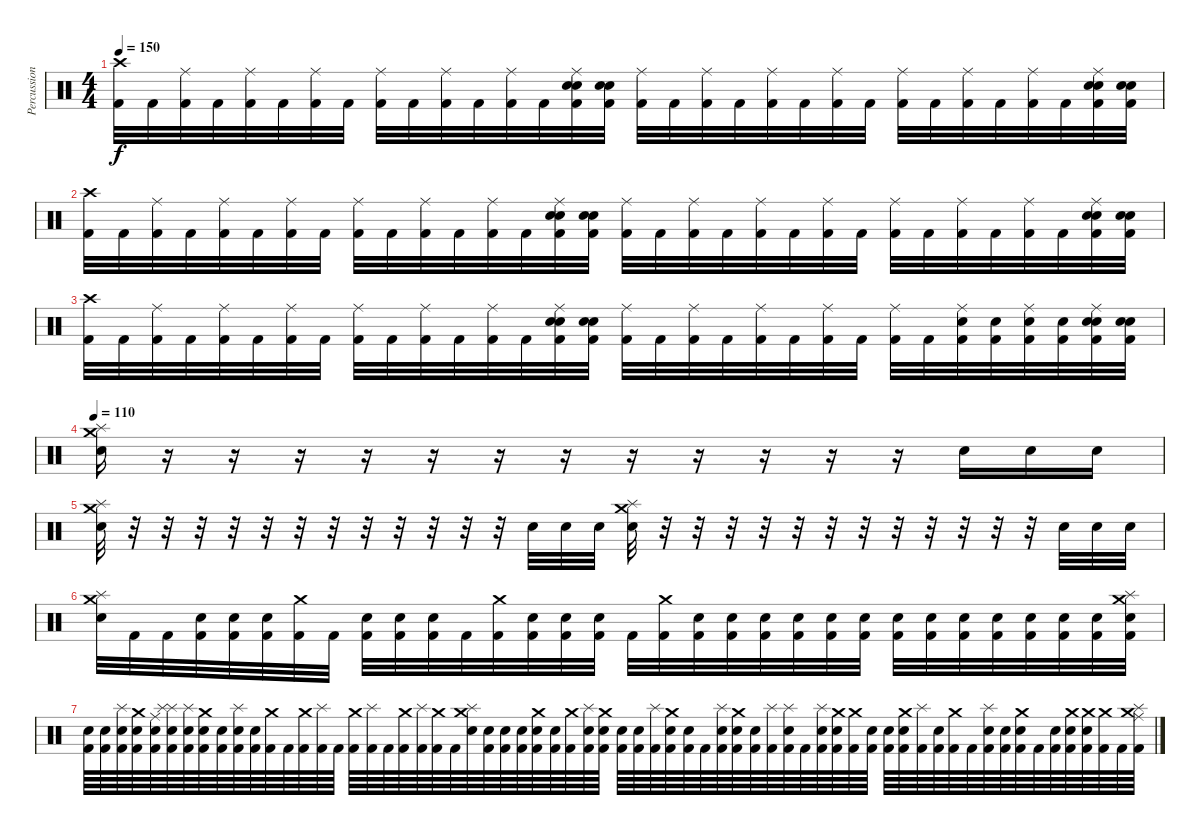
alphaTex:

\track ("Percussions" "Percussion") {instrument percussion}
\staff {score}
\articulation defaults
\ts (4 4)
\tempo 150
\clef neutral
\ks c
("Crash high (hit)" "Kick (hit) 2").32{dy f} "Kick (hit) 2".32 ("Ride (middle)" "Kick (hit) 2").32 "Kick (hit) 2".32 ("Ride (middle)" "Kick (hit) 2").32 "Kick (hit) 2".32 ("Ride (middle)" "Kick (hit) 2").32 "Kick (hit) 2".32 ("Ride (middle)" "Kick (hit) 2").32 "Kick (hit) 2".32 ("Ride (middle)" "Kick (hit) 2").32 "Kick (hit) 2".32 ("Ride (middle)" "Kick (hit) 2").32 "Kick (hit) 2".32 ("Ride (middle)" "Electric Snare (hit)" "Electric Snare (hit)" "Kick (hit) 2").32 ("Electric Snare (hit)" "Electric Snare (hit)" "Kick (hit) 2").32 ("Ride (middle)" "Kick (hit) 2").32 "Kick (hit) 2".32 ("Ride (middle)" "Kick (hit) 2").32 "Kick (hit) 2".32 ("Ride (middle)" "Kick (hit) 2").32 "Kick (hit) 2".32 ("Ride (middle)" "Kick (hit) 2").32 "Kick (hit) 2".32 ("Ride (middle)" "Kick (hit) 2").32 "Kick (hit) 2".32 ("Ride (middle)" "Kick (hit) 2").32 "Kick (hit) 2".32 ("Ride (middle)" "Kick (hit) 2").32 "Kick (hit) 2".32 ("Ride (middle)" "Electric Snare (hit)" "Electric Snare (hit)" "Kick (hit) 2").32 ("Electric Snare (hit)" "Electric Snare (hit)" "Kick (hit) 2").32 |
("Crash high (hit)" "Kick (hit) 2").32 "Kick (hit) 2".32 ("Ride (middle)" "Kick (hit) 2").32 "Kick (hit) 2".32 ("Ride (middle)" "Kick (hit) 2").32 "Kick (hit) 2".32 ("Ride (middle)" "Kick (hit) 2").32 "Kick (hit) 2".32 ("Ride (middle)" "Kick (hit) 2").32 "Kick (hit) 2".32 ("Ride (middle)" "Kick (hit) 2").32 "Kick (hit) 2".32 ("Ride (middle)" "Kick (hit) 2").32 "Kick (hit) 2".32 ("Ride (middle)" "Electric Snare (hit)" "Electric Snare (hit)" "Kick (hit) 2").32 ("Electric Snare (hit)" "Electric Snare (hit)" "Kick (hit) 2").32 ("Ride (middle)" "Kick (hit) 2").32 "Kick (hit) 2".32 ("Ride (middle)" "Kick (hit) 2").32 "Kick (hit) 2".32 ("Ride (middle)" "Kick (hit) 2").32 "Kick (hit) 2".32 ("Ride (middle)" "Kick (hit) 2").32 "Kick (hit) 2".32 ("Ride (middle)" "Kick (hit) 2").32 "Kick (hit) 2".32 ("Ride (middle)" "Kick (hit) 2").32 "Kick (hit) 2".32 ("Ride (middle)" "Kick (hit) 2").32 "Kick (hit) 2".32 ("Ride (middle)" "Electric Snare (hit)" "Electric Snare (hit)" "Kick (hit) 2").32 ("Electric Snare (hit)" "Electric Snare (hit)" "Kick (hit) 2").32 |
("Crash high (hit)" "Kick (hit) 2").32 "Kick (hit) 2".32 ("Ride (middle)" "Kick (hit) 2").32 "Kick (hit) 2".32 ("Ride (middle)" "Kick (hit) 2").32 "Kick (hit) 2".32 ("Ride (middle)" "Kick (hit) 2").32 "Kick (hit) 2".32 ("Ride (middle)" "Kick (hit) 2").32 "Kick (hit) 2".32 ("Ride (middle)" "Kick (hit) 2").32 "Kick (hit) 2".32 ("Ride (middle)" "Kick (hit) 2").32 "Kick (hit) 2".32 ("Ride (middle)" "Electric Snare (hit)" "Electric Snare (hit)" "Kick (hit) 2").32 ("Electric Snare (hit)" "Electric Snare (hit)" "Kick (hit) 2").32 ("Ride (middle)" "Kick (hit) 2").32 "Kick (hit) 2".32 ("Ride (middle)" "Kick (hit) 2").32 "Kick (hit) 2".32 ("Ride (middle)" "Kick (hit) 2").32 "Kick (hit) 2".32 ("Ride (middle)" "Kick (hit) 2").32 "Kick (hit) 2".32 ("Ride (middle)" "Kick (hit) 2").32 "Kick (hit) 2".32 ("Ride (middle)" "Electric Snare (hit)" "Kick (hit) 2").32 ("Electric Snare (hit)" "Kick (hit) 2").32 ("Ride (middle)" "Electric Snare (hit)" "Kick (hit) 2").32 ("Electric Snare (hit)" "Kick (hit) 2").32 ("Ride (middle)" "Electric Snare (hit)" "Electric Snare (hit)" "Kick (hit) 2").32 ("Electric Snare (hit)" "Electric Snare (hit)" "Kick (hit) 2").32 |
\tempo 110
("Crash medium (hit)" "Splash (hit)" "Electric Snare (hit)").16 r.16 r.16 r.16 r.16 r.16 r.16 r.16 r.16 r.16 r.16 r.16 r.16 "Electric Snare (hit)".16 "Electric Snare (hit)".16 "Electric Snare (hit)".16 |
("Crash medium (hit)" "Splash (hit)" "Electric Snare (hit)").32 r.32 r.32 r.32 r.32 r.32 r.32 r.32 r.32 r.32 r.32 r.32 r.32 "Electric Snare (hit)".32 "Electric Snare (hit)".32 "Electric Snare (hit)".32 ("Crash medium (hit)" "Splash (hit)" "Electric Snare (hit)").32 r.32 r.32 r.32 r.32 r.32 r.32 r.32 r.32 r.32 r.32 r.32 r.32 "Electric Snare (hit)".32 "Electric Snare (hit)".32 "Electric Snare (hit)".32 |
("Crash medium (hit)" "Splash (hit)" "Electric Snare (hit)").32 "Kick (hit) 2".32 "Kick (hit) 2".32 ("Kick (hit) 2" "Electric Snare (hit)").32 ("Kick (hit) 2" "Electric Snare (hit)").32 ("Kick (hit) 2" "Electric Snare (hit)").32 ("Kick (hit) 2" "Crash medium (hit)").32 "Kick (hit) 2".32 ("Kick (hit) 2" "Electric Snare (hit)").32 ("Kick (hit) 2" "Electric Snare (hit)").32 ("Kick (hit) 2" "Electric Snare (hit)").32 "Kick (hit) 2".32 ("Kick (hit) 2" "Crash medium (hit)").32 ("Kick (hit) 2" "Electric Snare (hit)").32 ("Kick (hit) 2" "Electric Snare (hit)").32 ("Kick (hit) 2" "Electric Snare (hit)").32 "Kick (hit) 2".32 ("Kick (hit) 2" "Crash medium (hit)").32 ("Kick (hit) 2" "Electric Snare (hit)").32 ("Kick (hit) 2" "Electric Snare (hit)").32 ("Kick (hit) 2" "Electric Snare (hit)").32 ("Kick (hit) 2" "Electric Snare (hit)").32 ("Kick (hit) 2" "Electric Snare (hit)").32 ("Kick (hit) 2" "Electric Snare (hit)").32 ("Kick (hit) 2" "Electric Snare (hit)").32 ("Kick (hit) 2" "Electric Snare (hit)").32 ("Kick (hit) 2" "Electric Snare (hit)").32 ("Kick (hit) 2" "Electric Snare (hit)").32 ("Kick (hit) 2" "Electric Snare (hit)").32 ("Kick (hit) 2" "Electric Snare (hit)").32 ("Kick (hit) 2" "Electric Snare (hit)").32 ("Kick (hit) 2" "Crash medium (hit)" "Splash (hit)" "Electric Snare (hit)").32 |
("Kick (hit) 2" "Electric Snare (hit)").64 ("Kick (hit) 2" "Electric Snare (hit)").64 ("Splash (hit)" "Kick (hit) 2" "Electric Snare (hit)").64 ("Crash medium (hit)" "Kick (hit) 2" "Electric Snare (hit)").64 ("Ride (middle)" "Kick (hit) 2" "Electric Snare (hit)").64 ("Splash (hit)" "Splash (hit)" "Kick (hit) 2" "Electric Snare (hit)").64 ("Splash (hit)" "Kick (hit) 2" "Electric Snare (hit)").64 ("Crash medium (hit)" "Kick (hit) 2" "Electric Snare (hit)").64 ("Kick (hit) 2" "Electric Snare (hit)").64 ("Splash (hit)" "Kick (hit) 2" "Electric Snare (hit)").64 ("Kick (hit) 2" "Electric Snare (hit)").64 ("Crash medium (hit)" "Kick (hit) 2").64 "Kick (hit) 2".64 ("Crash medium (hit)" "Kick (hit) 2").64 ("Splash (hit)" "Kick (hit) 2").64 "Kick (hit) 2".64 ("Crash medium (hit)" "Kick (hit) 2").64 ("Splash (hit)" "Kick (hit) 2").64 "Kick (hit) 2".64 ("Crash medium (hit)" "Kick (hit) 2").64 ("Splash (hit)" "Kick (hit) 2").64 ("Crash medium (hit)" "Kick (hit) 2").64 "Kick (hit) 2".64 ("Crash medium (hit)" "Splash (hit)" "Electric Snare (hit)").64 ("Electric Snare (hit)" "Kick (hit) 2").64 ("Electric Snare (hit)" "Kick (hit) 2").64 ("Electric Snare (hit)" "Kick (hit) 2").64 ("Crash medium (hit)" "Electric Snare (hit)" "Kick (hit) 2").64 ("Electric Snare (hit)" "Kick (hit) 2").64 ("Crash medium (hit)" "Kick (hit) 2").64 ("Splash (hit)" "Electric Snare (hit)" "Kick (hit) 2").64 ("Crash medium (hit)" "Electric Snare (hit)" "Kick (hit) 2").64 ("Electric Snare (hit)" "Kick (hit) 2").64 ("Electric Snare (hit)" "Kick (hit) 2").64 ("Splash (hit)" "Kick (hit) 2").64 ("Crash medium (hit)" "Electric Snare (hit)" "Kick (hit) 2").64 ("Electric Snare (hit)" "Kick (hit) 2").64 "Kick (hit) 2".64 ("Splash (hit)" "Electric Snare (hit)" "Kick (hit) 2").64 ("Crash medium (hit)" "Electric Snare (hit)" "Kick (hit) 2").64 ("Electric Snare (hit)" "Kick (hit) 2").64 ("Splash (hit)" "Kick (hit) 2").64 ("Splash (hit)" "Electric Snare (hit)" "Kick (hit) 2").64 "Kick (hit) 2".64 ("Splash (hit)" "Electric Snare (hit)" "Kick (hit) 2").64 ("Crash medium (hit)" "Electric Snare (hit)" "Kick (hit) 2").64 ("Crash medium (hit)" "Kick (hit) 2").64 ("Electric Snare (hit)" "Kick (hit) 2").64 ("Electric Snare (hit)" "Kick (hit) 2").64 ("Crash medium (hit)" "Electric Snare (hit)" "Kick (hit) 2").64 ("Splash (hit)" "Kick (hit) 2").64 ("Electric Snare (hit)" "Kick (hit) 2").64 ("Crash medium (hit)" "Kick (hit) 2").64 "Kick (hit) 2".64 ("Splash (hit)" "Electric Snare (hit)" "Kick (hit) 2").64 ("Electric Snare (hit)" "Kick (hit) 2").64 ("Crash medium (hit)" "Electric Snare (hit)" "Kick (hit) 2").64 "Kick (hit) 2".64 ("Electric Snare (hit)" "Kick (hit) 2").64 ("Crash medium (hit)" "Electric Snare (hit)" "Kick (hit) 2").64 ("Crash medium (hit)" "Electric Snare (hit)" "Kick (hit) 2").64 ("Crash medium (hit)" "Kick (hit) 2").64 "Kick (hit) 2".64 ("Ride (middle)" "Crash medium (hit)" "Splash (hit)" "Kick (hit) 2").64
